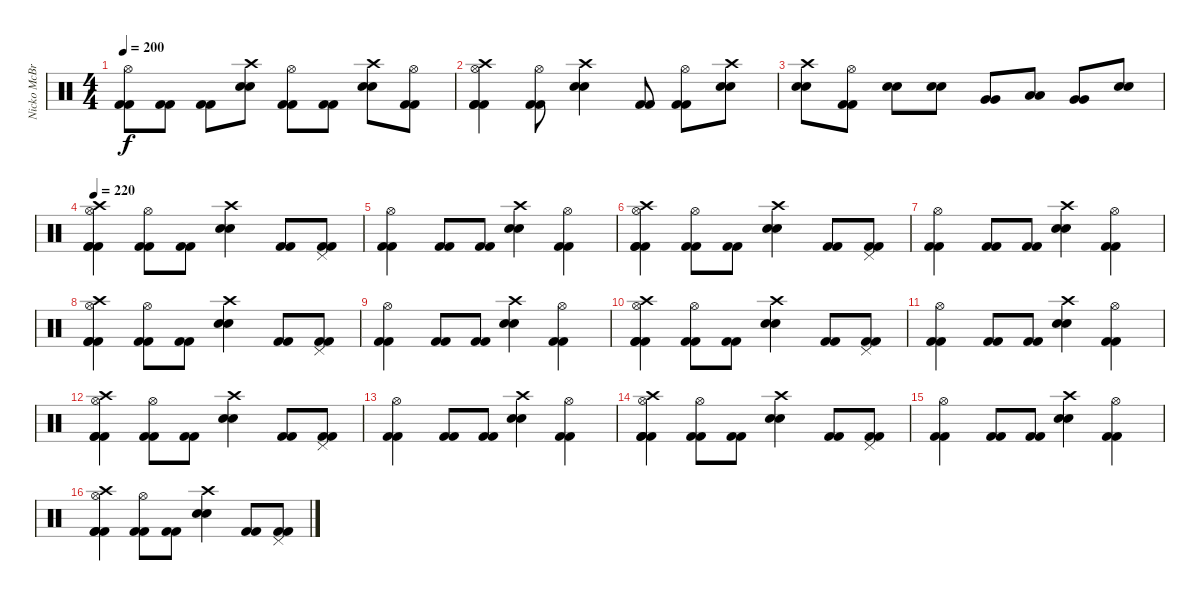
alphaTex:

\track ("Nicko McBrain" "Nicko McBr") {instrument percussion}
\staff {score}
\articulation defaults
\ts (4 4)
\tempo 200
\clef neutral
\ks c
("Hi-Hat (open)" "Kick (hit) 2" "Kick (hit) 2").8{dy f} ("Kick (hit) 2" "Kick (hit) 2").8 ("Kick (hit) 2" "Kick (hit) 2").8 ("Crash high (hit)" "Snare (hit) 2" "Snare (hit) 2").8 ("Hi-Hat (open)" "Kick (hit) 2" "Kick (hit) 2").8 ("Kick (hit) 2" "Kick (hit) 2").8 ("Crash high (hit)" "Snare (hit) 2" "Snare (hit) 2").8 ("Hi-Hat (open)" "Kick (hit) 2" "Kick (hit) 2").8 |
("Crash high (hit)" "Hi-Hat (open)" "Kick (hit) 2" "Kick (hit) 2" "Kick (hit) 2").4 ("Hi-Hat (open)" "Kick (hit) 2" "Kick (hit) 2").8 ("Crash high (hit)" "Snare (hit) 2" "Snare (hit) 2").4 ("Kick (hit) 2" "Kick (hit) 2").8 ("Hi-Hat (open)" "Kick (hit) 2" "Kick (hit) 2").8 ("Crash high (hit)" "Snare (hit) 2" "Snare (hit) 2").8 |
("Crash high (hit)" "Snare (hit) 2" "Snare (hit) 2").8 ("Hi-Hat (open)" "Kick (hit) 2" "Kick (hit) 2").8 ("Snare (hit) 2" "Snare (hit) 2").8 ("Snare (hit) 2" "Snare (hit) 2").8 ("Very Low Tom (hit)" "Very Low Tom (hit)").8 ("Low Floor Tom (hit)" "Low Floor Tom (hit)").8 ("Very Low Tom (hit)" "Very Low Tom (hit)").8 ("Snare (hit) 2" "Snare (hit) 2").8 |
\tempo 220
("Crash high (hit)" "Hi-Hat (open)" "Kick (hit) 2" "Kick (hit) 2" "Kick (hit) 2").4 ("Hi-Hat (open)" "Kick (hit) 2" "Kick (hit) 2").8 ("Kick (hit) 2" "Kick (hit) 2").8 ("Crash high (hit)" "Snare (hit) 2" "Snare (hit) 2").4 ("Kick (hit) 2" "Kick (hit) 2").8 ("Pedal Hi-Hat (hit)" "Kick (hit) 2" "Kick (hit) 2").8 |
("Hi-Hat (open)" "Kick (hit) 2" "Kick (hit) 2").4 ("Kick (hit) 2" "Kick (hit) 2").8 ("Kick (hit) 2" "Kick (hit) 2").8 ("Crash high (hit)" "Snare (hit) 2" "Snare (hit) 2").4 ("Hi-Hat (open)" "Kick (hit) 2" "Kick (hit) 2").4 |
("Crash high (hit)" "Hi-Hat (open)" "Kick (hit) 2" "Kick (hit) 2" "Kick (hit) 2").4 ("Hi-Hat (open)" "Kick (hit) 2" "Kick (hit) 2").8 ("Kick (hit) 2" "Kick (hit) 2").8 ("Crash high (hit)" "Snare (hit) 2" "Snare (hit) 2").4 ("Kick (hit) 2" "Kick (hit) 2").8 ("Pedal Hi-Hat (hit)" "Kick (hit) 2" "Kick (hit) 2").8 |
("Hi-Hat (open)" "Kick (hit) 2" "Kick (hit) 2").4 ("Kick (hit) 2" "Kick (hit) 2").8 ("Kick (hit) 2" "Kick (hit) 2").8 ("Crash high (hit)" "Snare (hit) 2" "Snare (hit) 2").4 ("Hi-Hat (open)" "Kick (hit) 2" "Kick (hit) 2").4 |
("Crash high (hit)" "Hi-Hat (open)" "Kick (hit) 2" "Kick (hit) 2" "Kick (hit) 2").4 ("Hi-Hat (open)" "Kick (hit) 2" "Kick (hit) 2").8 ("Kick (hit) 2" "Kick (hit) 2").8 ("Crash high (hit)" "Snare (hit) 2" "Snare (hit) 2").4 ("Kick (hit) 2" "Kick (hit) 2").8 ("Pedal Hi-Hat (hit)" "Kick (hit) 2" "Kick (hit) 2").8 |
("Hi-Hat (open)" "Kick (hit) 2" "Kick (hit) 2").4 ("Kick (hit) 2" "Kick (hit) 2").8 ("Kick (hit) 2" "Kick (hit) 2").8 ("Crash high (hit)" "Snare (hit) 2" "Snare (hit) 2").4 ("Hi-Hat (open)" "Kick (hit) 2" "Kick (hit) 2").4 |
("Crash high (hit)" "Hi-Hat (open)" "Kick (hit) 2" "Kick (hit) 2" "Kick (hit) 2").4 ("Hi-Hat (open)" "Kick (hit) 2" "Kick (hit) 2").8 ("Kick (hit) 2" "Kick (hit) 2").8 ("Crash high (hit)" "Snare (hit) 2" "Snare (hit) 2").4 ("Kick (hit) 2" "Kick (hit) 2").8 ("Pedal Hi-Hat (hit)" "Kick (hit) 2" "Kick (hit) 2").8 |
("Hi-Hat (open)" "Kick (hit) 2" "Kick (hit) 2").4 ("Kick (hit) 2" "Kick (hit) 2").8 ("Kick (hit) 2" "Kick (hit) 2").8 ("Crash high (hit)" "Snare (hit) 2" "Snare (hit) 2").4 ("Hi-Hat (open)" "Kick (hit) 2" "Kick (hit) 2").4 |
("Crash high (hit)" "Hi-Hat (open)" "Kick (hit) 2" "Kick (hit) 2" "Kick (hit) 2").4 ("Hi-Hat (open)" "Kick (hit) 2" "Kick (hit) 2").8 ("Kick (hit) 2" "Kick (hit) 2").8 ("Crash high (hit)" "Snare (hit) 2" "Snare (hit) 2").4 ("Kick (hit) 2" "Kick (hit) 2").8 ("Pedal Hi-Hat (hit)" "Kick (hit) 2" "Kick (hit) 2").8 |
("Hi-Hat (open)" "Kick (hit) 2" "Kick (hit) 2").4 ("Kick (hit) 2" "Kick (hit) 2").8 ("Kick (hit) 2" "Kick (hit) 2").8 ("Crash high (hit)" "Snare (hit) 2" "Snare (hit) 2").4 ("Hi-Hat (open)" "Kick (hit) 2" "Kick (hit) 2").4 |
("Crash high (hit)" "Hi-Hat (open)" "Kick (hit) 2" "Kick (hit) 2" "Kick (hit) 2").4 ("Hi-Hat (open)" "Kick (hit) 2" "Kick (hit) 2").8 ("Kick (hit) 2" "Kick (hit) 2").8 ("Crash high (hit)" "Snare (hit) 2" "Snare (hit) 2").4 ("Kick (hit) 2" "Kick (hit) 2").8 ("Pedal Hi-Hat (hit)" "Kick (hit) 2" "Kick (hit) 2").8 |
("Hi-Hat (open)" "Kick (hit) 2" "Kick (hit) 2").4 ("Kick (hit) 2" "Kick (hit) 2").8 ("Kick (hit) 2" "Kick (hit) 2").8 ("Crash high (hit)" "Snare (hit) 2" "Snare (hit) 2").4 ("Hi-Hat (open)" "Kick (hit) 2" "Kick (hit) 2").4 |
("Crash high (hit)" "Hi-Hat (open)" "Kick (hit) 2" "Kick (hit) 2" "Kick (hit) 2").4 ("Hi-Hat (open)" "Kick (hit) 2" "Kick (hit) 2").8 ("Kick (hit) 2" "Kick (hit) 2").8 ("Crash high (hit)" "Snare (hit) 2" "Snare (hit) 2").4 ("Kick (hit) 2" "Kick (hit) 2").8 ("Pedal Hi-Hat (hit)" "Kick (hit) 2" "Kick (hit) 2").8
